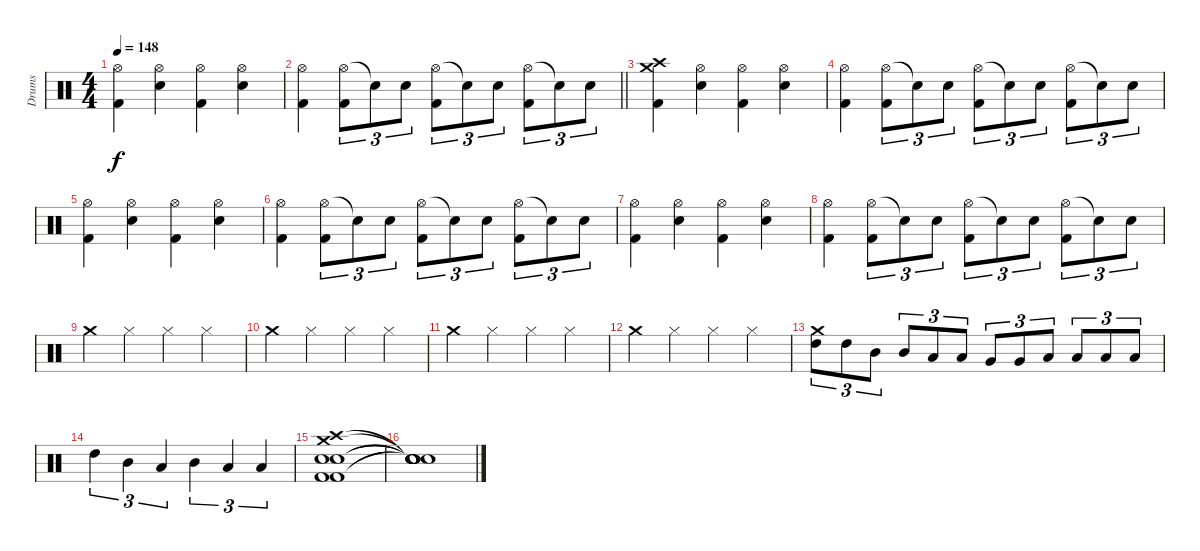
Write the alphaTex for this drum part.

\track ("Drums" "Drums") {instrument percussion}
\staff {score}
\articulation defaults
\ts (4 4)
\tempo 148
\clef neutral
\ks c
("Hi-Hat (open)" "Kick (hit) 2").4{dy f} ("Hi-Hat (open)" "Snare (hit) 2").4 ("Hi-Hat (open)" "Kick (hit) 2").4 ("Hi-Hat (open)" "Snare (hit) 2").4 |
\barLineRight lightlight
("Hi-Hat (open)" "Kick (hit) 2").4 ("Hi-Hat (open)" "Kick (hit) 2").8{tu (3 2)} "Snare (hit)"{t}.8{tu (3 2)} "Snare (hit) 2".8{tu (3 2)} ("Hi-Hat (open)" "Kick (hit) 2").8{tu (3 2)} "Snare (hit)"{t}.8{tu (3 2)} "Snare (hit) 2".8{tu (3 2)} ("Hi-Hat (open)" "Kick (hit) 2").8{tu (3 2)} "Snare (hit) 2"{t}.8{tu (3 2)} "Snare (hit) 2".8{tu (3 2)} |
("Crash high (hit)" "Crash medium (hit)" "Kick (hit) 2").4 ("Hi-Hat (open)" "Snare (hit) 2").4 ("Hi-Hat (open)" "Kick (hit) 2").4 ("Hi-Hat (open)" "Snare (hit) 2").4 |
("Hi-Hat (open)" "Kick (hit) 2").4 ("Hi-Hat (open)" "Kick (hit) 2").8{tu (3 2)} "Snare (hit)"{t}.8{tu (3 2)} "Snare (hit) 2".8{tu (3 2)} ("Hi-Hat (open)" "Kick (hit) 2").8{tu (3 2)} "Snare (hit)"{t}.8{tu (3 2)} "Snare (hit) 2".8{tu (3 2)} ("Hi-Hat (open)" "Kick (hit) 2").8{tu (3 2)} "Snare (hit) 2"{t}.8{tu (3 2)} "Snare (hit) 2".8{tu (3 2)} |
("Hi-Hat (open)" "Kick (hit) 2").4 ("Hi-Hat (open)" "Snare (hit) 2").4 ("Hi-Hat (open)" "Kick (hit) 2").4 ("Hi-Hat (open)" "Snare (hit) 2").4 |
("Hi-Hat (open)" "Kick (hit) 2").4 ("Hi-Hat (open)" "Kick (hit) 2").8{tu (3 2)} "Snare (hit)"{t}.8{tu (3 2)} "Snare (hit) 2".8{tu (3 2)} ("Hi-Hat (open)" "Kick (hit) 2").8{tu (3 2)} "Snare (hit)"{t}.8{tu (3 2)} "Snare (hit) 2".8{tu (3 2)} ("Hi-Hat (open)" "Kick (hit) 2").8{tu (3 2)} "Snare (hit) 2"{t}.8{tu (3 2)} "Snare (hit) 2".8{tu (3 2)} |
("Hi-Hat (open)" "Kick (hit) 2").4 ("Hi-Hat (open)" "Snare (hit) 2").4 ("Hi-Hat (open)" "Kick (hit) 2").4 ("Hi-Hat (open)" "Snare (hit) 2").4 |
("Hi-Hat (open)" "Kick (hit) 2").4 ("Hi-Hat (open)" "Kick (hit) 2").8{tu (3 2)} "Snare (hit)"{t}.8{tu (3 2)} "Snare (hit) 2".8{tu (3 2)} ("Hi-Hat (open)" "Kick (hit) 2").8{tu (3 2)} "Snare (hit)"{t}.8{tu (3 2)} "Snare (hit) 2".8{tu (3 2)} ("Hi-Hat (open)" "Kick (hit) 2").8{tu (3 2)} "Snare (hit) 2"{t}.8{tu (3 2)} "Snare (hit) 2".8{tu (3 2)} |
"Crash medium (hit)".4 "Hi-Hat (closed)".4 "Hi-Hat (closed)".4 "Hi-Hat (closed)".4 |
"Crash medium (hit)".4 "Hi-Hat (closed)".4 "Hi-Hat (closed)".4 "Hi-Hat (closed)".4 |
"Crash medium (hit)".4 "Hi-Hat (closed)".4 "Hi-Hat (closed)".4 "Hi-Hat (closed)".4 |
"Crash medium (hit)".4 "Hi-Hat (closed)".4 "Hi-Hat (closed)".4 "Hi-Hat (closed)".4 |
("Crash medium (hit)" "High Tom (hit)").8{tu (3 2)} "High Tom (hit)".8{tu (3 2)} "Mid Tom (hit)".8{tu (3 2)} "Mid Tom (hit)".8{tu (3 2)} "Low Tom (hit)".8{tu (3 2)} "Low Tom (hit)".8{tu (3 2)} "Very Low Tom (hit)".8{tu (3 2)} "Very Low Tom (hit)".8{tu (3 2)} "Low Floor Tom (hit)".8{tu (3 2)} "Low Floor Tom (hit)".8{tu (3 2)} "Low Floor Tom (hit)".8{tu (3 2)} "Low Floor Tom (hit)".8{tu (3 2)} |
"High Tom (hit)".4{tu (3 2)} "Mid Tom (hit)".4{tu (3 2)} "Low Tom (hit)".4{tu (3 2)} "Mid Tom (hit)".4{tu (3 2)} "Low Tom (hit)".4{tu (3 2)} "Low Floor Tom (hit)".4{tu (3 2)} |
("Kick (hit) 2" "Crash medium (hit)" "Crash high (hit)" "Snare (hit) 2" "Snare (hit) 2" "Kick (hit) 2").1 |
("Snare (hit)"{t} "Snare (hit)"{t} "Snare (hit)"{t} "Snare (hit)"{t} "Snare (hit)"{t} "Snare (hit)"{t}).1
